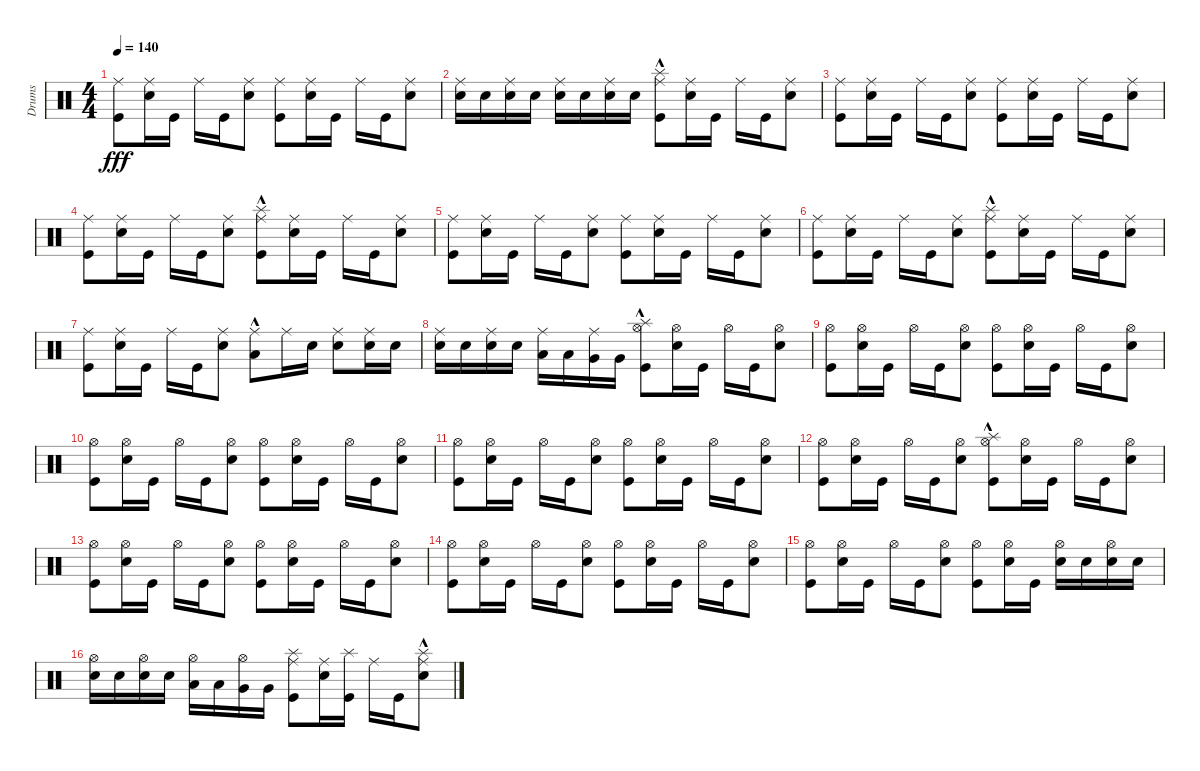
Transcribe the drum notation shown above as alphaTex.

\track ("Drums" "Drums") {instrument percussion}
\staff {score}
\articulation defaults
\ts (4 4)
\tempo 140
\clef neutral
\ks c
("Ride (middle)" "Kick (hit)").8{dy fff} ("Electric Snare (hit)" "Ride (middle)").16 "Kick (hit)".16 "Ride (middle)".16 "Kick (hit)".16 ("Electric Snare (hit)" "Ride (middle)").8 ("Ride (middle)" "Kick (hit)").8 ("Electric Snare (hit)" "Ride (middle)").16 "Kick (hit)".16 "Ride (middle)".16 "Kick (hit)".16 ("Ride (middle)" "Electric Snare (hit)").8 |
("Ride (middle)" "Electric Snare (hit)").16 "Electric Snare (hit)".16 ("Electric Snare (hit)" "Ride (middle)").16 "Electric Snare (hit)".16 ("Electric Snare (hit)" "Ride (middle)").16 "Electric Snare (hit)".16 ("Ride (middle)" "Electric Snare (hit)").16 "Electric Snare (hit)".16 ("Ride (middle)" "Kick (hit)" "Splash (hit)"{hac}).8 ("Ride (middle)" "Electric Snare (hit)").16 "Kick (hit)".16 "Ride (middle)".16 "Kick (hit)".16 ("Electric Snare (hit)" "Ride (middle)").8 |
("Ride (middle)" "Kick (hit)").8 ("Electric Snare (hit)" "Ride (middle)").16 "Kick (hit)".16 "Ride (middle)".16 "Kick (hit)".16 ("Electric Snare (hit)" "Ride (middle)").8 ("Kick (hit)" "Ride (middle)").8 ("Electric Snare (hit)" "Ride (middle)").16 "Kick (hit)".16 "Ride (middle)".16 "Kick (hit)".16 ("Electric Snare (hit)" "Ride (middle)").8 |
("Kick (hit)" "Ride (middle)").8 ("Ride (middle)" "Electric Snare (hit)").16 "Kick (hit)".16 "Ride (middle)".16 "Kick (hit)".16 ("Electric Snare (hit)" "Ride (middle)").8 ("Kick (hit)" "Splash (hit)"{hac} "Ride (middle)").8 ("Electric Snare (hit)" "Ride (middle)").16 "Kick (hit)".16 "Ride (middle)".16 "Kick (hit)".16 ("Electric Snare (hit)" "Ride (middle)").8 |
("Kick (hit)" "Ride (middle)").8 ("Ride (middle)" "Electric Snare (hit)").16 "Kick (hit)".16 "Ride (middle)".16 "Kick (hit)".16 ("Ride (middle)" "Electric Snare (hit)").8 ("Ride (middle)" "Kick (hit)").8 ("Ride (middle)" "Electric Snare (hit)").16 "Kick (hit)".16 "Ride (middle)".16 "Kick (hit)".16 ("Ride (middle)" "Electric Snare (hit)").8 |
("Kick (hit)" "Ride (middle)").8 ("Electric Snare (hit)" "Ride (middle)").16 "Kick (hit)".16 "Ride (middle)".16 "Kick (hit)".16 ("Ride (middle)" "Electric Snare (hit)").8 ("Ride (middle)" "Kick (hit)" "Splash (hit)"{hac}).8 ("Ride (middle)" "Electric Snare (hit)").16 "Kick (hit)".16 "Ride (middle)".16 "Kick (hit)".16 ("Ride (middle)" "Electric Snare (hit)").8 |
("Kick (hit)" "Ride (middle)").8 ("Electric Snare (hit)" "Ride (middle)").16 "Kick (hit)".16 "Ride (middle)".16 "Kick (hit)".16 ("Electric Snare (hit)" "Ride (middle)").8 ("Low Tom (hit)"{hac} "Ride (middle)").8 "Ride (middle)".16 "Electric Snare (hit)".16 ("Electric Snare (hit)" "Ride (middle)").8 ("Ride (middle)" "Electric Snare (hit)").16 "Electric Snare (hit)".16 |
("Ride (middle)" "Electric Snare (hit)").16 "Electric Snare (hit)".16 ("Electric Snare (hit)" "Ride (middle)").16 "Electric Snare (hit)".16 ("Low Tom (hit)" "Ride (middle)").16 "Low Tom (hit)".16 ("Ride (middle)" "Very Low Tom (hit)").16 "Very Low Tom (hit)".16 ("Hi-Hat (open)" "Kick (hit)" "Splash (hit)"{hac}).8 ("Electric Snare (hit)" "Hi-Hat (open)").16 "Kick (hit)".16 "Hi-Hat (open)".16 "Kick (hit)".16 ("Electric Snare (hit)" "Hi-Hat (open)").8 |
("Hi-Hat (open)" "Kick (hit)").8 ("Electric Snare (hit)" "Hi-Hat (open)").16 "Kick (hit)".16 "Hi-Hat (open)".16 "Kick (hit)".16 ("Electric Snare (hit)" "Hi-Hat (open)").8 ("Kick (hit)" "Hi-Hat (open)").8 ("Electric Snare (hit)" "Hi-Hat (open)").16 "Kick (hit)".16 "Hi-Hat (open)".16 "Kick (hit)".16 ("Electric Snare (hit)" "Hi-Hat (open)").8 |
("Hi-Hat (open)" "Kick (hit)").8 ("Electric Snare (hit)" "Hi-Hat (open)").16 "Kick (hit)".16 "Hi-Hat (open)".16 "Kick (hit)".16 ("Hi-Hat (open)" "Electric Snare (hit)").8 ("Kick (hit)" "Hi-Hat (open)").8 ("Electric Snare (hit)" "Hi-Hat (open)").16 "Kick (hit)".16 "Hi-Hat (open)".16 "Kick (hit)".16 ("Hi-Hat (open)" "Electric Snare (hit)").8 |
("Hi-Hat (open)" "Kick (hit)").8 ("Electric Snare (hit)" "Hi-Hat (open)").16 "Kick (hit)".16 "Hi-Hat (open)".16 "Kick (hit)".16 ("Electric Snare (hit)" "Hi-Hat (open)").8 ("Hi-Hat (open)" "Kick (hit)").8 ("Electric Snare (hit)" "Hi-Hat (open)").16 "Kick (hit)".16 "Hi-Hat (open)".16 "Kick (hit)".16 ("Electric Snare (hit)" "Hi-Hat (open)").8 |
("Kick (hit)" "Hi-Hat (open)").8 ("Electric Snare (hit)" "Hi-Hat (open)").16 "Kick (hit)".16 "Hi-Hat (open)".16 "Kick (hit)".16 ("Electric Snare (hit)" "Hi-Hat (open)").8 ("Splash (hit)"{hac} "Kick (hit)" "Hi-Hat (open)").8 ("Hi-Hat (open)" "Electric Snare (hit)").16 "Kick (hit)".16 "Hi-Hat (open)".16 "Kick (hit)".16 ("Hi-Hat (open)" "Electric Snare (hit)").8 |
("Kick (hit)" "Hi-Hat (open)").8 ("Hi-Hat (open)" "Electric Snare (hit)").16 "Kick (hit)".16 "Hi-Hat (open)".16 "Kick (hit)".16 ("Electric Snare (hit)" "Hi-Hat (open)").8 ("Hi-Hat (open)" "Kick (hit)").8 ("Electric Snare (hit)" "Hi-Hat (open)").16 "Kick (hit)".16 "Hi-Hat (open)".16 "Kick (hit)".16 ("Electric Snare (hit)" "Hi-Hat (open)").8 |
("Kick (hit)" "Hi-Hat (open)").8 ("Hi-Hat (open)" "Electric Snare (hit)").16 "Kick (hit)".16 "Hi-Hat (open)".16 "Kick (hit)".16 ("Electric Snare (hit)" "Hi-Hat (open)").8 ("Kick (hit)" "Hi-Hat (open)").8 ("Hi-Hat (open)" "Electric Snare (hit)").16 "Kick (hit)".16 "Hi-Hat (open)".16 "Kick (hit)".16 ("Hi-Hat (open)" "Electric Snare (hit)").8 |
("Kick (hit)" "Hi-Hat (open)").8 ("Hi-Hat (open)" "Electric Snare (hit)").16 "Kick (hit)".16 "Hi-Hat (open)".16 "Kick (hit)".16 ("Hi-Hat (open)" "Electric Snare (hit)").8 ("Kick (hit)" "Hi-Hat (open)").8 ("Electric Snare (hit)" "Hi-Hat (open)").16 "Kick (hit)".16 ("Electric Snare (hit)" "Hi-Hat (open)").16 "Electric Snare (hit)".16 ("Electric Snare (hit)" "Hi-Hat (open)").16 "Electric Snare (hit)".16 |
("Electric Snare (hit)" "Hi-Hat (open)").16 "Electric Snare (hit)".16 ("Hi-Hat (open)" "Electric Snare (hit)").16 "Electric Snare (hit)".16 ("Low Tom (hit)" "Hi-Hat (open)").16 "Low Tom (hit)".16 ("Very Low Tom (hit)" "Hi-Hat (open)").16 "Very Low Tom (hit)".16 ("Kick (hit)" "Splash (hit)" "Ride (middle)").8 ("Ride (middle)" "Electric Snare (hit)").16 ("Splash (hit)" "Kick (hit)").16 "Ride (middle)".16 "Kick (hit)".16 ("Ride (middle)" "Electric Snare (hit)" "Splash (hit)"{hac}).8
